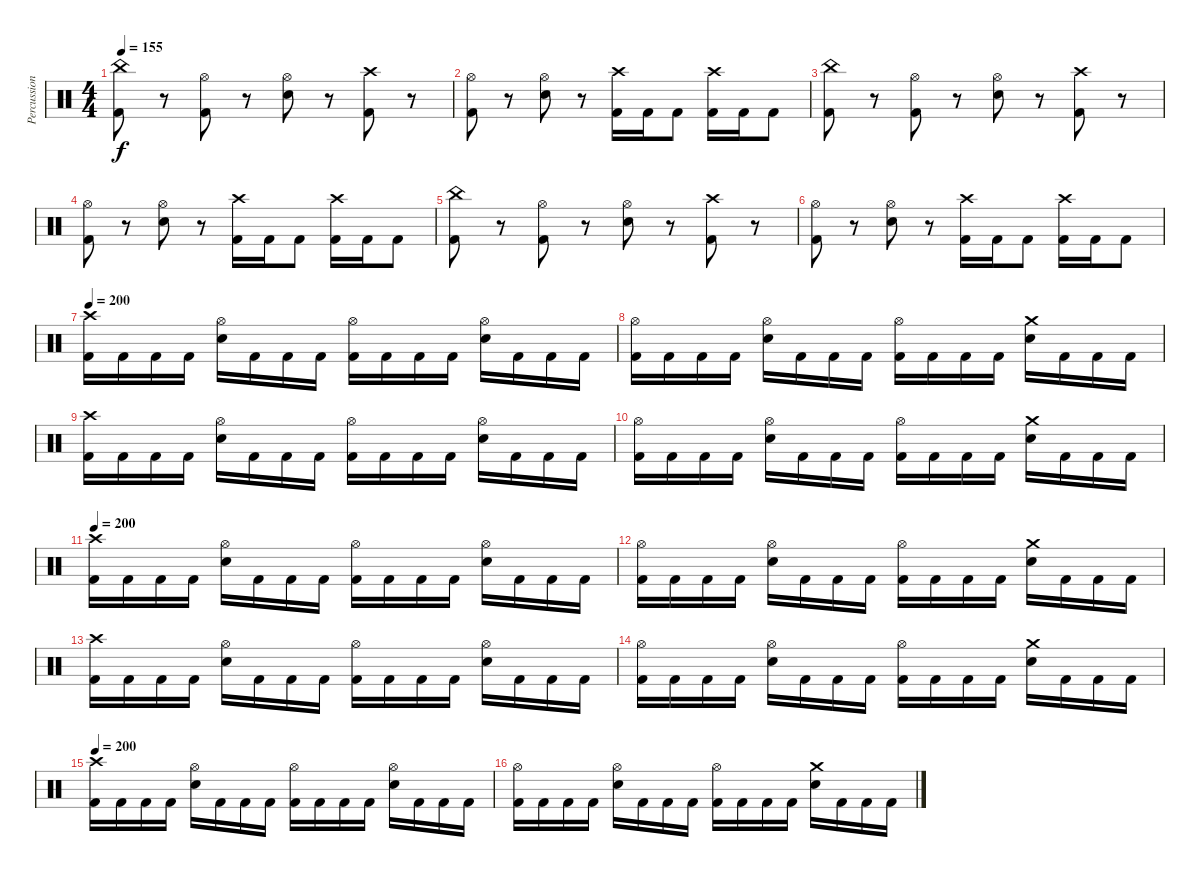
\track ("Percussion" "Percussion") {instrument percussion}
\staff {score}
\articulation defaults
\ts (4 4)
\tempo 155
\clef neutral
\ks c
("China (hit)" "Kick (hit) 2").8{dy f} r.8 ("Hi-Hat (open)" "Kick (hit) 2").8 r.8 ("Hi-Hat (open)" "Electric Snare (hit)").8 r.8 ("Crash high (hit)" "Kick (hit) 2").8 r.8 |
("Hi-Hat (open)" "Kick (hit) 2").8 r.8 ("Hi-Hat (open)" "Electric Snare (hit)").8 r.8 ("Crash high (hit)" "Kick (hit) 2").16 "Kick (hit) 2".16 "Kick (hit) 2".8 ("Crash high (hit)" "Kick (hit) 2").16 "Kick (hit) 2".16 "Kick (hit) 2".8 |
("China (hit)" "Kick (hit) 2").8 r.8 ("Hi-Hat (open)" "Kick (hit) 2").8 r.8 ("Hi-Hat (open)" "Electric Snare (hit)").8 r.8 ("Crash high (hit)" "Kick (hit) 2").8 r.8 |
("Hi-Hat (open)" "Kick (hit) 2").8 r.8 ("Hi-Hat (open)" "Electric Snare (hit)").8 r.8 ("Crash high (hit)" "Kick (hit) 2").16 "Kick (hit) 2".16 "Kick (hit) 2".8 ("Crash high (hit)" "Kick (hit) 2").16 "Kick (hit) 2".16 "Kick (hit) 2".8 |
("China (hit)" "Kick (hit) 2").8 r.8 ("Hi-Hat (open)" "Kick (hit) 2").8 r.8 ("Hi-Hat (open)" "Electric Snare (hit)").8 r.8 ("Crash high (hit)" "Kick (hit) 2").8 r.8 |
("Hi-Hat (open)" "Kick (hit) 2").8 r.8 ("Hi-Hat (open)" "Electric Snare (hit)").8 r.8 ("Crash high (hit)" "Kick (hit) 2").16 "Kick (hit) 2".16 "Kick (hit) 2".8 ("Crash high (hit)" "Kick (hit) 2").16 "Kick (hit) 2".16 "Kick (hit) 2".8 |
\tempo 200
("Crash high (hit)" "Kick (hit) 2").16 "Kick (hit) 2".16 "Kick (hit) 2".16 "Kick (hit) 2".16 ("Hi-Hat (open)" "Electric Snare (hit)").16 "Kick (hit) 2".16 "Kick (hit) 2".16 "Kick (hit) 2".16 ("Hi-Hat (open)" "Kick (hit) 2").16 "Kick (hit) 2".16 "Kick (hit) 2".16 "Kick (hit) 2".16 ("Hi-Hat (open)" "Electric Snare (hit)").16 "Kick (hit) 2".16 "Kick (hit) 2".16 "Kick (hit) 2".16 |
("Hi-Hat (open)" "Kick (hit) 2").16 "Kick (hit) 2".16 "Kick (hit) 2".16 "Kick (hit) 2".16 ("Hi-Hat (open)" "Electric Snare (hit)").16 "Kick (hit) 2".16 "Kick (hit) 2".16 "Kick (hit) 2".16 ("Hi-Hat (open)" "Kick (hit) 2").16 "Kick (hit) 2".16 "Kick (hit) 2".16 "Kick (hit) 2".16 ("Crash medium (hit)" "Electric Snare (hit)").16 "Kick (hit) 2".16 "Kick (hit) 2".16 "Kick (hit) 2".16 |
("Crash high (hit)" "Kick (hit) 2").16 "Kick (hit) 2".16 "Kick (hit) 2".16 "Kick (hit) 2".16 ("Hi-Hat (open)" "Electric Snare (hit)").16 "Kick (hit) 2".16 "Kick (hit) 2".16 "Kick (hit) 2".16 ("Hi-Hat (open)" "Kick (hit) 2").16 "Kick (hit) 2".16 "Kick (hit) 2".16 "Kick (hit) 2".16 ("Hi-Hat (open)" "Electric Snare (hit)").16 "Kick (hit) 2".16 "Kick (hit) 2".16 "Kick (hit) 2".16 |
("Hi-Hat (open)" "Kick (hit) 2").16 "Kick (hit) 2".16 "Kick (hit) 2".16 "Kick (hit) 2".16 ("Hi-Hat (open)" "Electric Snare (hit)").16 "Kick (hit) 2".16 "Kick (hit) 2".16 "Kick (hit) 2".16 ("Hi-Hat (open)" "Kick (hit) 2").16 "Kick (hit) 2".16 "Kick (hit) 2".16 "Kick (hit) 2".16 ("Crash medium (hit)" "Electric Snare (hit)").16 "Kick (hit) 2".16 "Kick (hit) 2".16 "Kick (hit) 2".16 |
\tempo 200
("Crash high (hit)" "Kick (hit) 2").16 "Kick (hit) 2".16 "Kick (hit) 2".16 "Kick (hit) 2".16 ("Hi-Hat (open)" "Electric Snare (hit)").16 "Kick (hit) 2".16 "Kick (hit) 2".16 "Kick (hit) 2".16 ("Hi-Hat (open)" "Kick (hit) 2").16 "Kick (hit) 2".16 "Kick (hit) 2".16 "Kick (hit) 2".16 ("Hi-Hat (open)" "Electric Snare (hit)").16 "Kick (hit) 2".16 "Kick (hit) 2".16 "Kick (hit) 2".16 |
("Hi-Hat (open)" "Kick (hit) 2").16 "Kick (hit) 2".16 "Kick (hit) 2".16 "Kick (hit) 2".16 ("Hi-Hat (open)" "Electric Snare (hit)").16 "Kick (hit) 2".16 "Kick (hit) 2".16 "Kick (hit) 2".16 ("Hi-Hat (open)" "Kick (hit) 2").16 "Kick (hit) 2".16 "Kick (hit) 2".16 "Kick (hit) 2".16 ("Crash medium (hit)" "Electric Snare (hit)").16 "Kick (hit) 2".16 "Kick (hit) 2".16 "Kick (hit) 2".16 |
("Crash high (hit)" "Kick (hit) 2").16 "Kick (hit) 2".16 "Kick (hit) 2".16 "Kick (hit) 2".16 ("Hi-Hat (open)" "Electric Snare (hit)").16 "Kick (hit) 2".16 "Kick (hit) 2".16 "Kick (hit) 2".16 ("Hi-Hat (open)" "Kick (hit) 2").16 "Kick (hit) 2".16 "Kick (hit) 2".16 "Kick (hit) 2".16 ("Hi-Hat (open)" "Electric Snare (hit)").16 "Kick (hit) 2".16 "Kick (hit) 2".16 "Kick (hit) 2".16 |
("Hi-Hat (open)" "Kick (hit) 2").16 "Kick (hit) 2".16 "Kick (hit) 2".16 "Kick (hit) 2".16 ("Hi-Hat (open)" "Electric Snare (hit)").16 "Kick (hit) 2".16 "Kick (hit) 2".16 "Kick (hit) 2".16 ("Hi-Hat (open)" "Kick (hit) 2").16 "Kick (hit) 2".16 "Kick (hit) 2".16 "Kick (hit) 2".16 ("Crash medium (hit)" "Electric Snare (hit)").16 "Kick (hit) 2".16 "Kick (hit) 2".16 "Kick (hit) 2".16 |
\tempo 200
("Crash high (hit)" "Kick (hit) 2").16 "Kick (hit) 2".16 "Kick (hit) 2".16 "Kick (hit) 2".16 ("Hi-Hat (open)" "Electric Snare (hit)").16 "Kick (hit) 2".16 "Kick (hit) 2".16 "Kick (hit) 2".16 ("Hi-Hat (open)" "Kick (hit) 2").16 "Kick (hit) 2".16 "Kick (hit) 2".16 "Kick (hit) 2".16 ("Hi-Hat (open)" "Electric Snare (hit)").16 "Kick (hit) 2".16 "Kick (hit) 2".16 "Kick (hit) 2".16 |
("Hi-Hat (open)" "Kick (hit) 2").16 "Kick (hit) 2".16 "Kick (hit) 2".16 "Kick (hit) 2".16 ("Hi-Hat (open)" "Electric Snare (hit)").16 "Kick (hit) 2".16 "Kick (hit) 2".16 "Kick (hit) 2".16 ("Hi-Hat (open)" "Kick (hit) 2").16 "Kick (hit) 2".16 "Kick (hit) 2".16 "Kick (hit) 2".16 ("Crash medium (hit)" "Electric Snare (hit)").16 "Kick (hit) 2".16 "Kick (hit) 2".16 "Kick (hit) 2".16
